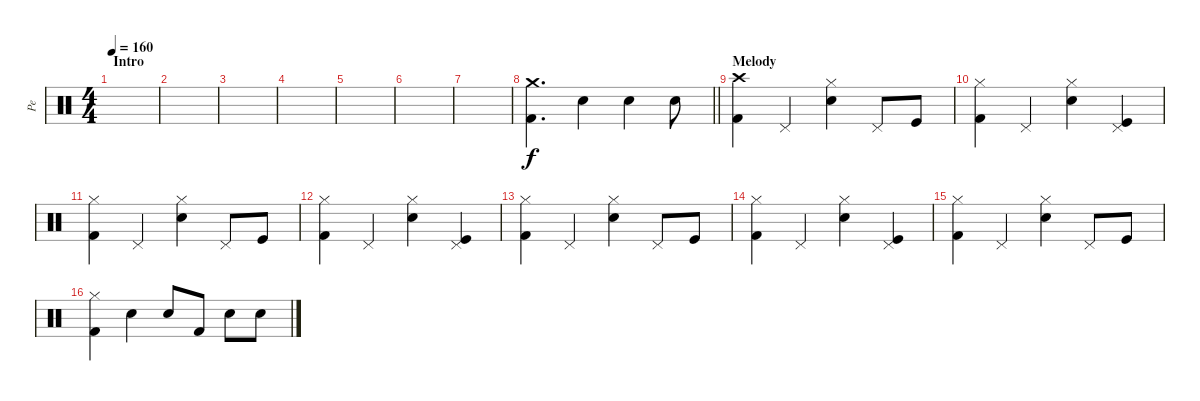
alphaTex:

\track ("Pe" "Pe") {instrument percussion}
\staff {score}
\articulation defaults
\ts (4 4)
\section ("" "Intro")
\tempo 160
\clef neutral
\ks c
|
|
|
|
|
|
|
\barLineRight lightlight
("Kick (hit) 2" "Crash medium (hit)").4{d} "Electric Snare (hit)".4 "Electric Snare (hit)".4 "Electric Snare (hit)".8 |
\section ("" "Melody")
("Kick (hit) 2" "Crash high (hit)").4 "Pedal Hi-Hat (hit)".4 ("Electric Snare (hit)" "Hi-Hat (closed)").4 "Pedal Hi-Hat (hit)".8 "Kick (hit)".8 |
("Kick (hit) 2" "Hi-Hat (closed)").4 "Pedal Hi-Hat (hit)".4 ("Electric Snare (hit)" "Hi-Hat (closed)").4 ("Kick (hit)" "Pedal Hi-Hat (hit)").4 |
("Kick (hit) 2" "Hi-Hat (closed)").4 "Pedal Hi-Hat (hit)".4 ("Electric Snare (hit)" "Hi-Hat (closed)").4 "Pedal Hi-Hat (hit)".8 "Kick (hit)".8 |
("Kick (hit) 2" "Hi-Hat (closed)").4 "Pedal Hi-Hat (hit)".4 ("Electric Snare (hit)" "Hi-Hat (closed)").4 ("Kick (hit)" "Pedal Hi-Hat (hit)").4 |
("Kick (hit) 2" "Hi-Hat (closed)").4 "Pedal Hi-Hat (hit)".4 ("Electric Snare (hit)" "Hi-Hat (closed)").4 "Pedal Hi-Hat (hit)".8 "Kick (hit)".8 |
("Kick (hit) 2" "Hi-Hat (closed)").4 "Pedal Hi-Hat (hit)".4 ("Electric Snare (hit)" "Hi-Hat (closed)").4 ("Kick (hit)" "Pedal Hi-Hat (hit)").4 |
("Kick (hit) 2" "Hi-Hat (closed)").4 "Pedal Hi-Hat (hit)".4 ("Electric Snare (hit)" "Hi-Hat (closed)").4 "Pedal Hi-Hat (hit)".8 "Kick (hit)".8 |
("Kick (hit) 2" "Hi-Hat (closed)").4 "Electric Snare (hit)".4 "Electric Snare (hit)".8 "Kick (hit) 2".8 "Electric Snare (hit)".8 "Electric Snare (hit)".8
